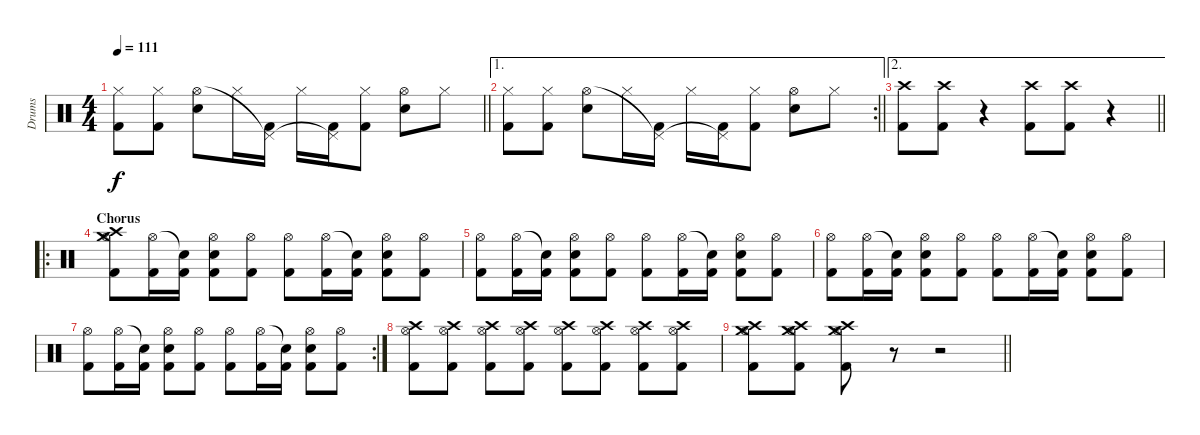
\track ("Drums" "Drums") {instrument percussion}
\staff {score}
\articulation defaults
\ts (4 4)
\tempo 111
\clef neutral
\barLineRight lightlight
\ks c
("Kick (hit) 2" "Hi-Hat (closed)").8{dy f} ("Kick (hit) 2" "Hi-Hat (closed)").8 ("Electric Snare (hit)" "Hi-Hat (open)").8 "Hi-Hat (closed)".16 ("Kick (hit) 2" "Pedal Hi-Hat (hit)"{t}).16 "Hi-Hat (closed)".16 ("Kick (hit) 2" "Pedal Hi-Hat (hit)"{t}).16 ("Kick (hit) 2" "Hi-Hat (closed)").8 ("Electric Snare (hit)" "Hi-Hat (open)").8 "Hi-Hat (closed)".8 |
\ae 1
\rc 2
\barLineRight lightlight
("Kick (hit) 2" "Hi-Hat (closed)").8 ("Kick (hit) 2" "Hi-Hat (closed)").8 ("Electric Snare (hit)" "Hi-Hat (open)").8 "Hi-Hat (closed)".16 ("Kick (hit) 2" "Pedal Hi-Hat (hit)"{t}).16 "Hi-Hat (closed)".16 ("Kick (hit) 2" "Pedal Hi-Hat (hit)"{t}).16 ("Kick (hit) 2" "Hi-Hat (closed)").8 ("Electric Snare (hit)" "Hi-Hat (open)").8 "Hi-Hat (closed)".8 |
\ae 2
\barLineRight lightlight
("Crash high (hit)" "Kick (hit) 2").8 ("Crash high (hit)" "Kick (hit) 2").8 r.4 ("Crash high (hit)" "Kick (hit) 2").8 ("Crash high (hit)" "Kick (hit) 2").8 r.4 |
\ro
\section ("" "Chorus")
("Crash medium (hit)" "Crash high (hit)" "Kick (hit) 2" "Hi-Hat (open)").8 ("Kick (hit) 2" "Hi-Hat (open)").16 ("Kick (hit) 2" "Snare (hit)"{t}).16 ("Electric Snare (hit)" "Kick (hit) 2" "Hi-Hat (open)").8 ("Kick (hit) 2" "Hi-Hat (open)").8 ("Kick (hit) 2" "Hi-Hat (open)").8 ("Kick (hit) 2" "Hi-Hat (open)").16 ("Kick (hit) 2" "Snare (hit)"{t}).16 ("Electric Snare (hit)" "Kick (hit) 2" "Hi-Hat (open)").8 ("Kick (hit) 2" "Hi-Hat (open)").8 |
("Kick (hit) 2" "Hi-Hat (open)").8 ("Kick (hit) 2" "Hi-Hat (open)").16 ("Kick (hit) 2" "Snare (hit)"{t}).16 ("Electric Snare (hit)" "Kick (hit) 2" "Hi-Hat (open)").8 ("Kick (hit) 2" "Hi-Hat (open)").8 ("Kick (hit) 2" "Hi-Hat (open)").8 ("Kick (hit) 2" "Hi-Hat (open)").16 ("Kick (hit) 2" "Snare (hit)"{t}).16 ("Electric Snare (hit)" "Kick (hit) 2" "Hi-Hat (open)").8 ("Kick (hit) 2" "Hi-Hat (open)").8 |
("Kick (hit) 2" "Hi-Hat (open)").8 ("Kick (hit) 2" "Hi-Hat (open)").16 ("Kick (hit) 2" "Snare (hit)"{t}).16 ("Electric Snare (hit)" "Kick (hit) 2" "Hi-Hat (open)").8 ("Kick (hit) 2" "Hi-Hat (open)").8 ("Kick (hit) 2" "Hi-Hat (open)").8 ("Kick (hit) 2" "Hi-Hat (open)").16 ("Kick (hit) 2" "Snare (hit)"{t}).16 ("Electric Snare (hit)" "Kick (hit) 2" "Hi-Hat (open)").8 ("Kick (hit) 2" "Hi-Hat (open)").8 |
\rc 2
("Kick (hit) 2" "Hi-Hat (open)").8 ("Kick (hit) 2" "Hi-Hat (open)").16 ("Kick (hit) 2" "Snare (hit)"{t}).16 ("Electric Snare (hit)" "Kick (hit) 2" "Hi-Hat (open)").8 ("Kick (hit) 2" "Hi-Hat (open)").8 ("Kick (hit) 2" "Hi-Hat (open)").8 ("Kick (hit) 2" "Hi-Hat (open)").16 ("Kick (hit) 2" "Snare (hit)"{t}).16 ("Electric Snare (hit)" "Kick (hit) 2" "Hi-Hat (open)").8 ("Kick (hit) 2" "Hi-Hat (open)").8 |
("Crash high (hit)" "Kick (hit) 2" "Hi-Hat (open)").8 ("Crash high (hit)" "Kick (hit) 2" "Hi-Hat (open)").8 ("Crash high (hit)" "Kick (hit) 2" "Hi-Hat (open)").8 ("Crash high (hit)" "Kick (hit) 2" "Hi-Hat (open)").8 ("Crash high (hit)" "Kick (hit) 2" "Hi-Hat (open)").8 ("Crash high (hit)" "Kick (hit) 2" "Hi-Hat (open)").8 ("Crash high (hit)" "Kick (hit) 2" "Hi-Hat (open)").8 ("Crash high (hit)" "Kick (hit) 2" "Hi-Hat (open)").8 |
\barLineRight lightlight
("Crash medium (hit)" "Crash high (hit)" "Kick (hit) 2" "Hi-Hat (open)").8 ("Crash medium (hit)" "Crash high (hit)" "Kick (hit) 2" "Hi-Hat (open)").8 ("Crash medium (hit)" "Crash high (hit)" "Kick (hit) 2" "Hi-Hat (open)").8 r.8 r.2
